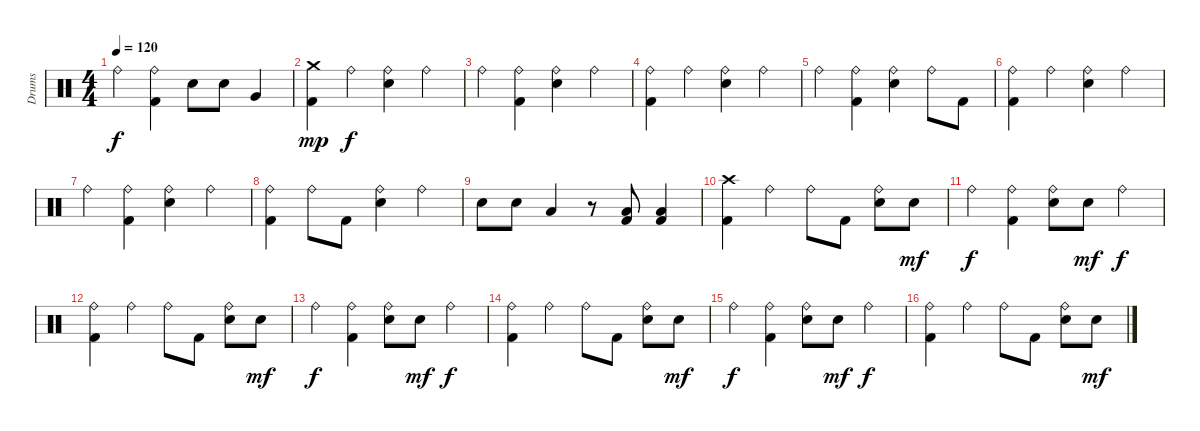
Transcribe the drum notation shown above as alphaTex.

\track ("Drums" "Drums") {instrument percussion}
\staff {score}
\articulation defaults
\ts (4 4)
\tempo 120
\clef neutral
\ks c "Ride (bell)".4{dy f}
("Ride (bell)" "Kick (hit) 2").4 "Electric Snare (hit)".8 "Electric Snare (hit)".8 "Very Low Tom (hit)".4 |
("Crash medium (hit)" "Kick (hit) 2").4{dy mp} "Ride (bell)".4{dy f} ("Ride (bell)" "Electric Snare (hit)").4 "Ride (bell)".4 |
"Ride (bell)".4 ("Ride (bell)" "Kick (hit) 2").4 ("Ride (bell)" "Electric Snare (hit)").4 "Ride (bell)".4 |
("Ride (bell)" "Kick (hit) 2").4 "Ride (bell)".4 ("Ride (bell)" "Electric Snare (hit)").4 "Ride (bell)".4 |
"Ride (bell)".4 ("Ride (bell)" "Kick (hit) 2").4 ("Ride (bell)" "Electric Snare (hit)").4 "Ride (bell)".8 "Kick (hit) 2".8 |
("Ride (bell)" "Kick (hit) 2").4 "Ride (bell)".4 ("Ride (bell)" "Electric Snare (hit)").4 "Ride (bell)".4 |
"Ride (bell)".4 ("Ride (bell)" "Kick (hit) 2").4 ("Ride (bell)" "Electric Snare (hit)").4 "Ride (bell)".4 |
("Ride (bell)" "Kick (hit) 2").4 "Ride (bell)".8 "Kick (hit) 2".8 ("Ride (bell)" "Electric Snare (hit)").4 "Ride (bell)".4 |
"Electric Snare (hit)".8 "Electric Snare (hit)".8 "Low Tom (hit)".4 r.8 ("Low Floor Tom (hit)" "Kick (hit) 2").8 ("Low Floor Tom (hit)" "Kick (hit) 2").4 |
("Crash high (hit)" "Kick (hit) 2").4 "Ride (bell)".4 "Ride (bell)".8 "Kick (hit) 2".8 ("Ride (bell)" "Electric Snare (hit)").8 "Electric Snare (hit)".8{dy mf} |
"Ride (bell)".4{dy f} ("Ride (bell)" "Kick (hit) 2").4 ("Ride (bell)" "Electric Snare (hit)").8 "Electric Snare (hit)".8{dy mf} "Ride (bell)".4{dy f} |
("Ride (bell)" "Kick (hit) 2").4 "Ride (bell)".4 "Ride (bell)".8 "Kick (hit) 2".8 ("Ride (bell)" "Electric Snare (hit)").8 "Electric Snare (hit)".8{dy mf} |
"Ride (bell)".4{dy f} ("Ride (bell)" "Kick (hit) 2").4 ("Ride (bell)" "Electric Snare (hit)").8 "Electric Snare (hit)".8{dy mf} "Ride (bell)".4{dy f} |
("Ride (bell)" "Kick (hit) 2").4 "Ride (bell)".4 "Ride (bell)".8 "Kick (hit) 2".8 ("Ride (bell)" "Electric Snare (hit)").8 "Electric Snare (hit)".8{dy mf} |
"Ride (bell)".4{dy f} ("Ride (bell)" "Kick (hit) 2").4 ("Ride (bell)" "Electric Snare (hit)").8 "Electric Snare (hit)".8{dy mf} "Ride (bell)".4{dy f} |
("Ride (bell)" "Kick (hit) 2").4 "Ride (bell)".4 "Ride (bell)".8 "Kick (hit) 2".8 ("Ride (bell)" "Electric Snare (hit)").8 "Electric Snare (hit)".8{dy mf}
